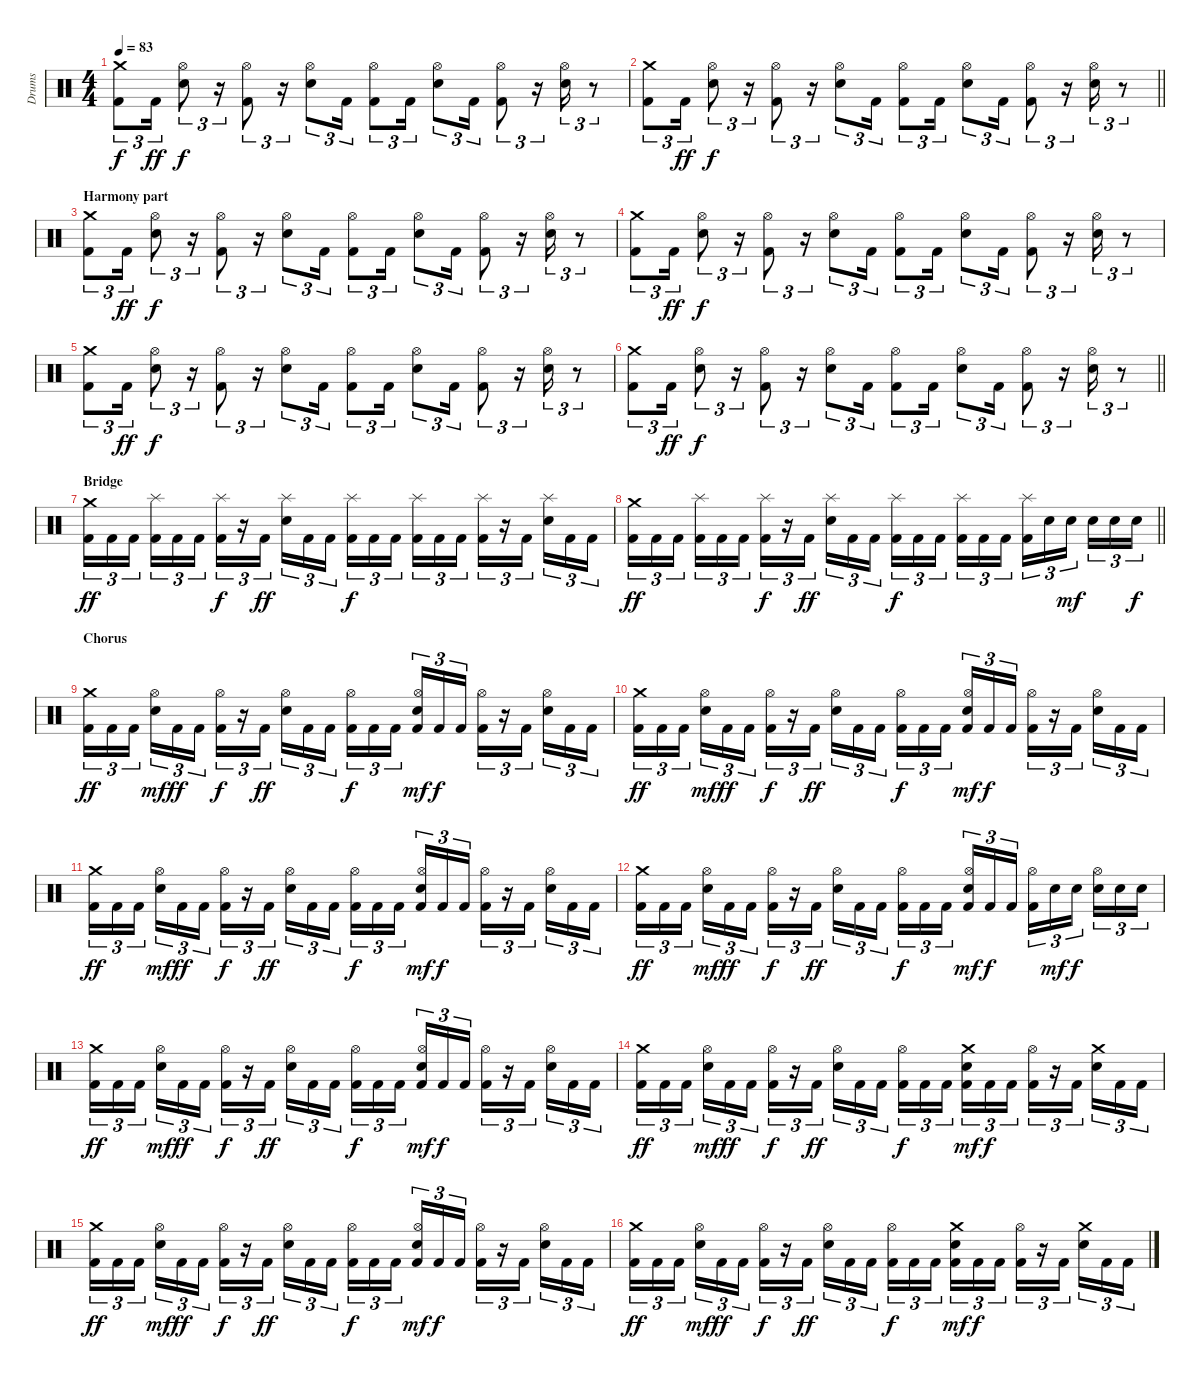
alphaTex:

\track ("Drums " "Drums ") {instrument percussion}
\staff {score}
\articulation defaults
\ts (4 4)
\tempo 83
\clef neutral
\ks c
("Crash medium (hit)" "Kick (hit) 2").8{tu (3 2) dy f} "Kick (hit) 2".16{tu (3 2) dy ff} ("Hi-Hat (open)" "Snare (hit) 2").8{tu (3 2) dy f} r.16{tu (3 2)} ("Hi-Hat (open)" "Kick (hit) 2").8{tu (3 2)} r.16{tu (3 2)} ("Hi-Hat (open)" "Snare (hit) 2").8{tu (3 2)} "Kick (hit) 2".16{tu (3 2)} ("Hi-Hat (open)" "Kick (hit) 2").8{tu (3 2)} "Kick (hit) 2".16{tu (3 2)} ("Hi-Hat (open)" "Snare (hit) 2").8{tu (3 2)} "Kick (hit) 2".16{tu (3 2)} ("Hi-Hat (open)" "Kick (hit) 2").8{tu (3 2)} r.16{tu (3 2)} ("Hi-Hat (open)" "Snare (hit) 2").16{tu (3 2)} r.8{tu (3 2)} |
\barLineRight lightlight
("Crash medium (hit)" "Kick (hit) 2").8{tu (3 2)} "Kick (hit) 2".16{tu (3 2) dy ff} ("Hi-Hat (open)" "Snare (hit) 2").8{tu (3 2) dy f} r.16{tu (3 2)} ("Hi-Hat (open)" "Kick (hit) 2").8{tu (3 2)} r.16{tu (3 2)} ("Hi-Hat (open)" "Snare (hit) 2").8{tu (3 2)} "Kick (hit) 2".16{tu (3 2)} ("Hi-Hat (open)" "Kick (hit) 2").8{tu (3 2)} "Kick (hit) 2".16{tu (3 2)} ("Hi-Hat (open)" "Snare (hit) 2").8{tu (3 2)} "Kick (hit) 2".16{tu (3 2)} ("Hi-Hat (open)" "Kick (hit) 2").8{tu (3 2)} r.16{tu (3 2)} ("Hi-Hat (open)" "Snare (hit) 2").16{tu (3 2)} r.8{tu (3 2)} |
\section ("" "Harmony part")
("Crash medium (hit)" "Kick (hit) 2").8{tu (3 2)} "Kick (hit) 2".16{tu (3 2) dy ff} ("Hi-Hat (open)" "Snare (hit) 2").8{tu (3 2) dy f} r.16{tu (3 2)} ("Hi-Hat (open)" "Kick (hit) 2").8{tu (3 2)} r.16{tu (3 2)} ("Hi-Hat (open)" "Snare (hit) 2").8{tu (3 2)} "Kick (hit) 2".16{tu (3 2)} ("Hi-Hat (open)" "Kick (hit) 2").8{tu (3 2)} "Kick (hit) 2".16{tu (3 2)} ("Hi-Hat (open)" "Snare (hit) 2").8{tu (3 2)} "Kick (hit) 2".16{tu (3 2)} ("Hi-Hat (open)" "Kick (hit) 2").8{tu (3 2)} r.16{tu (3 2)} ("Hi-Hat (open)" "Snare (hit) 2").16{tu (3 2)} r.8{tu (3 2)} |
("Crash medium (hit)" "Kick (hit) 2").8{tu (3 2)} "Kick (hit) 2".16{tu (3 2) dy ff} ("Hi-Hat (open)" "Snare (hit) 2").8{tu (3 2) dy f} r.16{tu (3 2)} ("Hi-Hat (open)" "Kick (hit) 2").8{tu (3 2)} r.16{tu (3 2)} ("Hi-Hat (open)" "Snare (hit) 2").8{tu (3 2)} "Kick (hit) 2".16{tu (3 2)} ("Hi-Hat (open)" "Kick (hit) 2").8{tu (3 2)} "Kick (hit) 2".16{tu (3 2)} ("Hi-Hat (open)" "Snare (hit) 2").8{tu (3 2)} "Kick (hit) 2".16{tu (3 2)} ("Hi-Hat (open)" "Kick (hit) 2").8{tu (3 2)} r.16{tu (3 2)} ("Hi-Hat (open)" "Snare (hit) 2").16{tu (3 2)} r.8{tu (3 2)} |
("Crash medium (hit)" "Kick (hit) 2").8{tu (3 2)} "Kick (hit) 2".16{tu (3 2) dy ff} ("Hi-Hat (open)" "Snare (hit) 2").8{tu (3 2) dy f} r.16{tu (3 2)} ("Hi-Hat (open)" "Kick (hit) 2").8{tu (3 2)} r.16{tu (3 2)} ("Hi-Hat (open)" "Snare (hit) 2").8{tu (3 2)} "Kick (hit) 2".16{tu (3 2)} ("Hi-Hat (open)" "Kick (hit) 2").8{tu (3 2)} "Kick (hit) 2".16{tu (3 2)} ("Hi-Hat (open)" "Snare (hit) 2").8{tu (3 2)} "Kick (hit) 2".16{tu (3 2)} ("Hi-Hat (open)" "Kick (hit) 2").8{tu (3 2)} r.16{tu (3 2)} ("Hi-Hat (open)" "Snare (hit) 2").16{tu (3 2)} r.8{tu (3 2)} |
\barLineRight lightlight
("Crash medium (hit)" "Kick (hit) 2").8{tu (3 2)} "Kick (hit) 2".16{tu (3 2) dy ff} ("Hi-Hat (open)" "Snare (hit) 2").8{tu (3 2) dy f} r.16{tu (3 2)} ("Hi-Hat (open)" "Kick (hit) 2").8{tu (3 2)} r.16{tu (3 2)} ("Hi-Hat (open)" "Snare (hit) 2").8{tu (3 2)} "Kick (hit) 2".16{tu (3 2)} ("Hi-Hat (open)" "Kick (hit) 2").8{tu (3 2)} "Kick (hit) 2".16{tu (3 2)} ("Hi-Hat (open)" "Snare (hit) 2").8{tu (3 2)} "Kick (hit) 2".16{tu (3 2)} ("Hi-Hat (open)" "Kick (hit) 2").8{tu (3 2)} r.16{tu (3 2)} ("Hi-Hat (open)" "Snare (hit) 2").16{tu (3 2)} r.8{tu (3 2)} |
\section ("" "Bridge")
("Crash medium (hit)" "Kick (hit) 2").16{tu (3 2) dy ff} "Kick (hit) 2".16{tu (3 2)} "Kick (hit) 2".16{tu (3 2) beam splitsecondary} ("Splash (hit)" "Kick (hit) 2").16{tu (3 2)} "Kick (hit) 2".16{tu (3 2)} "Kick (hit) 2".16{tu (3 2)} ("Splash (hit)" "Kick (hit) 2").16{tu (3 2) dy f} r.16{tu (3 2)} "Kick (hit) 2".16{tu (3 2) dy ff beam splitsecondary} ("Splash (hit)" "Snare (hit) 2").16{tu (3 2)} "Kick (hit) 2".16{tu (3 2)} "Kick (hit) 2".16{tu (3 2)} ("Splash (hit)" "Kick (hit) 2").16{tu (3 2) dy f} "Kick (hit) 2".16{tu (3 2)} "Kick (hit) 2".16{tu (3 2) beam splitsecondary} ("Splash (hit)" "Kick (hit) 2").16{tu (3 2)} "Kick (hit) 2".16{tu (3 2)} "Kick (hit) 2".16{tu (3 2)} ("Splash (hit)" "Kick (hit) 2").16{tu (3 2)} r.16{tu (3 2)} "Kick (hit) 2".16{tu (3 2) beam splitsecondary} ("Splash (hit)" "Snare (hit) 2").16{tu (3 2)} "Kick (hit) 2".16{tu (3 2)} "Kick (hit) 2".16{tu (3 2)} |
\barLineRight lightlight
("Crash medium (hit)" "Kick (hit) 2").16{tu (3 2) dy ff} "Kick (hit) 2".16{tu (3 2)} "Kick (hit) 2".16{tu (3 2) beam splitsecondary} ("Splash (hit)" "Kick (hit) 2").16{tu (3 2)} "Kick (hit) 2".16{tu (3 2)} "Kick (hit) 2".16{tu (3 2)} ("Splash (hit)" "Kick (hit) 2").16{tu (3 2) dy f} r.16{tu (3 2)} "Kick (hit) 2".16{tu (3 2) dy ff beam splitsecondary} ("Splash (hit)" "Snare (hit) 2").16{tu (3 2)} "Kick (hit) 2".16{tu (3 2)} "Kick (hit) 2".16{tu (3 2)} ("Splash (hit)" "Kick (hit) 2").16{tu (3 2) dy f} "Kick (hit) 2".16{tu (3 2)} "Kick (hit) 2".16{tu (3 2) beam splitsecondary} ("Splash (hit)" "Kick (hit) 2").16{tu (3 2)} "Kick (hit) 2".16{tu (3 2)} "Kick (hit) 2".16{tu (3 2)} ("Splash (hit)" "Kick (hit) 2").16{tu (3 2)} "Snare (hit) 2".16{tu (3 2)} "Snare (hit) 2".16{tu (3 2) dy mf beam splitsecondary} "Snare (hit) 2".16{tu (3 2)} "Snare (hit) 2".16{tu (3 2)} "Snare (hit) 2".16{tu (3 2) dy f} |
\section ("" "Chorus")
("Crash medium (hit)" "Kick (hit) 2").16{tu (3 2) dy ff} "Kick (hit) 2".16{tu (3 2)} "Kick (hit) 2".16{tu (3 2) beam splitsecondary} ("Hi-Hat (open)" "Snare (hit) 2").16{tu (3 2) dy mf} "Kick (hit) 2".16{tu (3 2) dy ff} "Kick (hit) 2".16{tu (3 2)} ("Hi-Hat (open)" "Kick (hit) 2").16{tu (3 2) dy f} r.16{tu (3 2)} "Kick (hit) 2".16{tu (3 2) dy ff beam splitsecondary} ("Hi-Hat (open)" "Snare (hit) 2").16{tu (3 2)} "Kick (hit) 2".16{tu (3 2)} "Kick (hit) 2".16{tu (3 2)} ("Hi-Hat (open)" "Kick (hit) 2").16{tu (3 2) dy f} "Kick (hit) 2".16{tu (3 2)} "Kick (hit) 2".16{tu (3 2) beam splitsecondary} ("Hi-Hat (open)" "Snare (hit) 2" "Kick (hit) 2").16{tu (3 2) dy mf} "Kick (hit) 2".16{tu (3 2) dy f} "Kick (hit) 2".16{tu (3 2)} ("Hi-Hat (open)" "Kick (hit) 2").16{tu (3 2)} r.16{tu (3 2)} "Kick (hit) 2".16{tu (3 2) beam splitsecondary} ("Hi-Hat (open)" "Snare (hit) 2").16{tu (3 2)} "Kick (hit) 2".16{tu (3 2)} "Kick (hit) 2".16{tu (3 2)} |
("Crash medium (hit)" "Kick (hit) 2").16{tu (3 2) dy ff} "Kick (hit) 2".16{tu (3 2)} "Kick (hit) 2".16{tu (3 2) beam splitsecondary} ("Hi-Hat (open)" "Snare (hit) 2").16{tu (3 2) dy mf} "Kick (hit) 2".16{tu (3 2) dy ff} "Kick (hit) 2".16{tu (3 2)} ("Hi-Hat (open)" "Kick (hit) 2").16{tu (3 2) dy f} r.16{tu (3 2)} "Kick (hit) 2".16{tu (3 2) dy ff beam splitsecondary} ("Hi-Hat (open)" "Snare (hit) 2").16{tu (3 2)} "Kick (hit) 2".16{tu (3 2)} "Kick (hit) 2".16{tu (3 2)} ("Hi-Hat (open)" "Kick (hit) 2").16{tu (3 2) dy f} "Kick (hit) 2".16{tu (3 2)} "Kick (hit) 2".16{tu (3 2) beam splitsecondary} ("Hi-Hat (open)" "Snare (hit) 2" "Kick (hit) 2").16{tu (3 2) dy mf} "Kick (hit) 2".16{tu (3 2) dy f} "Kick (hit) 2".16{tu (3 2)} ("Hi-Hat (open)" "Kick (hit) 2").16{tu (3 2)} r.16{tu (3 2)} "Kick (hit) 2".16{tu (3 2) beam splitsecondary} ("Hi-Hat (open)" "Snare (hit) 2").16{tu (3 2)} "Kick (hit) 2".16{tu (3 2)} "Kick (hit) 2".16{tu (3 2)} |
("Crash medium (hit)" "Kick (hit) 2").16{tu (3 2) dy ff} "Kick (hit) 2".16{tu (3 2)} "Kick (hit) 2".16{tu (3 2) beam splitsecondary} ("Hi-Hat (open)" "Snare (hit) 2").16{tu (3 2) dy mf} "Kick (hit) 2".16{tu (3 2) dy ff} "Kick (hit) 2".16{tu (3 2)} ("Hi-Hat (open)" "Kick (hit) 2").16{tu (3 2) dy f} r.16{tu (3 2)} "Kick (hit) 2".16{tu (3 2) dy ff beam splitsecondary} ("Hi-Hat (open)" "Snare (hit) 2").16{tu (3 2)} "Kick (hit) 2".16{tu (3 2)} "Kick (hit) 2".16{tu (3 2)} ("Hi-Hat (open)" "Kick (hit) 2").16{tu (3 2) dy f} "Kick (hit) 2".16{tu (3 2)} "Kick (hit) 2".16{tu (3 2) beam splitsecondary} ("Hi-Hat (open)" "Snare (hit) 2" "Kick (hit) 2").16{tu (3 2) dy mf} "Kick (hit) 2".16{tu (3 2) dy f} "Kick (hit) 2".16{tu (3 2)} ("Hi-Hat (open)" "Kick (hit) 2").16{tu (3 2)} r.16{tu (3 2)} "Kick (hit) 2".16{tu (3 2) beam splitsecondary} ("Hi-Hat (open)" "Snare (hit) 2").16{tu (3 2)} "Kick (hit) 2".16{tu (3 2)} "Kick (hit) 2".16{tu (3 2)} |
("Crash medium (hit)" "Kick (hit) 2").16{tu (3 2) dy ff} "Kick (hit) 2".16{tu (3 2)} "Kick (hit) 2".16{tu (3 2) beam splitsecondary} ("Hi-Hat (open)" "Snare (hit) 2").16{tu (3 2) dy mf} "Kick (hit) 2".16{tu (3 2) dy ff} "Kick (hit) 2".16{tu (3 2)} ("Hi-Hat (open)" "Kick (hit) 2").16{tu (3 2) dy f} r.16{tu (3 2)} "Kick (hit) 2".16{tu (3 2) dy ff beam splitsecondary} ("Hi-Hat (open)" "Snare (hit) 2").16{tu (3 2)} "Kick (hit) 2".16{tu (3 2)} "Kick (hit) 2".16{tu (3 2)} ("Hi-Hat (open)" "Kick (hit) 2").16{tu (3 2) dy f} "Kick (hit) 2".16{tu (3 2)} "Kick (hit) 2".16{tu (3 2) beam splitsecondary} ("Hi-Hat (open)" "Snare (hit) 2" "Kick (hit) 2").16{tu (3 2) dy mf} "Kick (hit) 2".16{tu (3 2) dy f} "Kick (hit) 2".16{tu (3 2)} ("Hi-Hat (open)" "Kick (hit) 2").16{tu (3 2)} "Snare (hit) 2".16{tu (3 2) dy mf} "Snare (hit) 2".16{tu (3 2) dy f beam splitsecondary} ("Hi-Hat (open)" "Snare (hit) 2").16{tu (3 2)} "Snare (hit) 2".16{tu (3 2)} "Snare (hit) 2".16{tu (3 2)} |
("Crash medium (hit)" "Kick (hit) 2").16{tu (3 2) dy ff volume 15} "Kick (hit) 2".16{tu (3 2)} "Kick (hit) 2".16{tu (3 2) beam splitsecondary} ("Hi-Hat (open)" "Snare (hit) 2").16{tu (3 2) dy mf} "Kick (hit) 2".16{tu (3 2) dy ff} "Kick (hit) 2".16{tu (3 2)} ("Hi-Hat (open)" "Kick (hit) 2").16{tu (3 2) dy f} r.16{tu (3 2)} "Kick (hit) 2".16{tu (3 2) dy ff beam splitsecondary} ("Hi-Hat (open)" "Snare (hit) 2").16{tu (3 2)} "Kick (hit) 2".16{tu (3 2)} "Kick (hit) 2".16{tu (3 2)} ("Hi-Hat (open)" "Kick (hit) 2").16{tu (3 2) dy f} "Kick (hit) 2".16{tu (3 2)} "Kick (hit) 2".16{tu (3 2) beam splitsecondary} ("Hi-Hat (open)" "Snare (hit) 2" "Kick (hit) 2").16{tu (3 2) dy mf} "Kick (hit) 2".16{tu (3 2) dy f} "Kick (hit) 2".16{tu (3 2)} ("Hi-Hat (open)" "Kick (hit) 2").16{tu (3 2)} r.16{tu (3 2)} "Kick (hit) 2".16{tu (3 2) beam splitsecondary} ("Hi-Hat (open)" "Snare (hit) 2").16{tu (3 2)} "Kick (hit) 2".16{tu (3 2)} "Kick (hit) 2".16{tu (3 2)} |
("Crash medium (hit)" "Kick (hit) 2").16{tu (3 2) dy ff} "Kick (hit) 2".16{tu (3 2)} "Kick (hit) 2".16{tu (3 2) beam splitsecondary} ("Hi-Hat (open)" "Snare (hit) 2").16{tu (3 2) dy mf} "Kick (hit) 2".16{tu (3 2) dy ff} "Kick (hit) 2".16{tu (3 2)} ("Hi-Hat (open)" "Kick (hit) 2").16{tu (3 2) dy f} r.16{tu (3 2)} "Kick (hit) 2".16{tu (3 2) dy ff beam splitsecondary} ("Hi-Hat (open)" "Snare (hit) 2").16{tu (3 2)} "Kick (hit) 2".16{tu (3 2)} "Kick (hit) 2".16{tu (3 2)} ("Hi-Hat (open)" "Kick (hit) 2").16{tu (3 2) dy f} "Kick (hit) 2".16{tu (3 2)} "Kick (hit) 2".16{tu (3 2) beam splitsecondary} ("Crash medium (hit)" "Snare (hit) 2" "Kick (hit) 2").16{tu (3 2) dy mf} "Kick (hit) 2".16{tu (3 2) dy f} "Kick (hit) 2".16{tu (3 2)} ("Hi-Hat (open)" "Kick (hit) 2").16{tu (3 2)} r.16{tu (3 2)} "Kick (hit) 2".16{tu (3 2) beam splitsecondary} ("Crash medium (hit)" "Snare (hit) 2").16{tu (3 2)} "Kick (hit) 2".16{tu (3 2)} "Kick (hit) 2".16{tu (3 2)} |
("Crash medium (hit)" "Kick (hit) 2").16{tu (3 2) dy ff} "Kick (hit) 2".16{tu (3 2)} "Kick (hit) 2".16{tu (3 2) beam splitsecondary} ("Hi-Hat (open)" "Snare (hit) 2").16{tu (3 2) dy mf} "Kick (hit) 2".16{tu (3 2) dy ff} "Kick (hit) 2".16{tu (3 2)} ("Hi-Hat (open)" "Kick (hit) 2").16{tu (3 2) dy f} r.16{tu (3 2)} "Kick (hit) 2".16{tu (3 2) dy ff beam splitsecondary} ("Hi-Hat (open)" "Snare (hit) 2").16{tu (3 2)} "Kick (hit) 2".16{tu (3 2)} "Kick (hit) 2".16{tu (3 2)} ("Hi-Hat (open)" "Kick (hit) 2").16{tu (3 2) dy f} "Kick (hit) 2".16{tu (3 2)} "Kick (hit) 2".16{tu (3 2) beam splitsecondary} ("Hi-Hat (open)" "Snare (hit) 2" "Kick (hit) 2").16{tu (3 2) dy mf} "Kick (hit) 2".16{tu (3 2) dy f} "Kick (hit) 2".16{tu (3 2)} ("Hi-Hat (open)" "Kick (hit) 2").16{tu (3 2)} r.16{tu (3 2)} "Kick (hit) 2".16{tu (3 2) beam splitsecondary} ("Hi-Hat (open)" "Snare (hit) 2").16{tu (3 2)} "Kick (hit) 2".16{tu (3 2)} "Kick (hit) 2".16{tu (3 2)} |
("Crash medium (hit)" "Kick (hit) 2").16{tu (3 2) dy ff} "Kick (hit) 2".16{tu (3 2)} "Kick (hit) 2".16{tu (3 2) beam splitsecondary} ("Hi-Hat (open)" "Snare (hit) 2").16{tu (3 2) dy mf} "Kick (hit) 2".16{tu (3 2) dy ff} "Kick (hit) 2".16{tu (3 2)} ("Hi-Hat (open)" "Kick (hit) 2").16{tu (3 2) dy f} r.16{tu (3 2)} "Kick (hit) 2".16{tu (3 2) dy ff beam splitsecondary} ("Hi-Hat (open)" "Snare (hit) 2").16{tu (3 2)} "Kick (hit) 2".16{tu (3 2)} "Kick (hit) 2".16{tu (3 2)} ("Hi-Hat (open)" "Kick (hit) 2").16{tu (3 2) dy f} "Kick (hit) 2".16{tu (3 2)} "Kick (hit) 2".16{tu (3 2) beam splitsecondary} ("Crash medium (hit)" "Snare (hit) 2" "Kick (hit) 2").16{tu (3 2) dy mf} "Kick (hit) 2".16{tu (3 2) dy f} "Kick (hit) 2".16{tu (3 2)} ("Hi-Hat (open)" "Kick (hit) 2").16{tu (3 2)} r.16{tu (3 2)} "Kick (hit) 2".16{tu (3 2) beam splitsecondary} ("Crash medium (hit)" "Snare (hit) 2").16{tu (3 2)} "Kick (hit) 2".16{tu (3 2)} "Kick (hit) 2".16{tu (3 2)}
